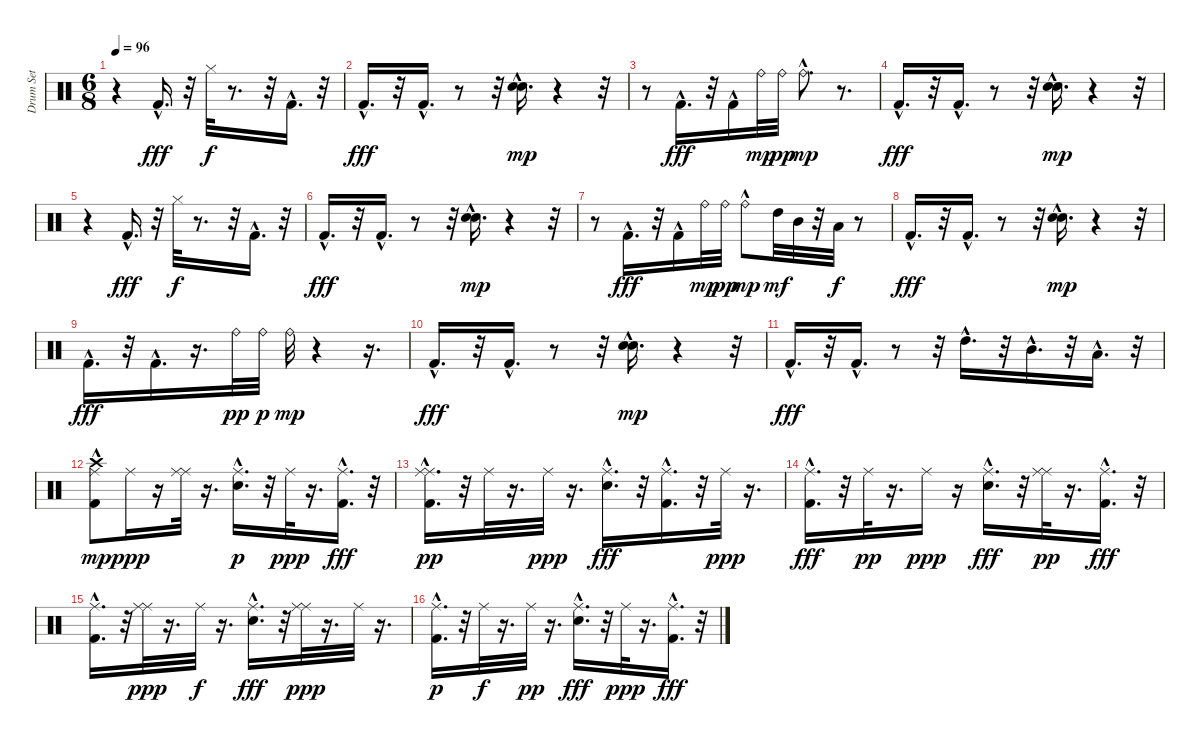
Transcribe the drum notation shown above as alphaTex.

\track ("Drum Set" "Drum Set") {instrument percussion}
\staff {score}
\articulation defaults
\ts (6 8)
\tempo 96
\clef neutral
\ks c
r.4{dy mp} "Kick (hit) 2"{hac}.16{d dy fff} r.32 "Hi-Hat (closed)".32{dy f} r.8{d} r.32 "Kick (hit) 2"{hac}.16{d} r.32 |
"Kick (hit) 2"{hac}.16{d dy fff} r.32 "Kick (hit) 2"{hac}.16{d} r.8 r.32 ("Snare (hit) 2"{hac} "Electric Snare (hit)"{hac}).16{d dy mp} r.4 r.32 |
r.8 "Kick (hit) 2"{hac}.16{d dy fff} r.32 "Kick (hit) 2"{hac}.16 "Ride (bell)".32{dy mp} "Ride (bell)".32{dy pp} "Ride (bell)"{hac}.8{d dy mp} r.8{d} |
"Kick (hit) 2"{hac}.16{d dy fff} r.32 "Kick (hit) 2"{hac}.16{d} r.8 r.32 ("Snare (hit) 2"{hac} "Electric Snare (hit)"{hac}).16{d dy mp} r.4 r.32 |
r.4 "Kick (hit) 2"{hac}.16{d dy fff} r.32 "Hi-Hat (closed)".32{dy f} r.8{d} r.32 "Kick (hit) 2"{hac}.16{d} r.32 |
"Kick (hit) 2"{hac}.16{d dy fff} r.32 "Kick (hit) 2"{hac}.16{d} r.8 r.32 ("Snare (hit) 2"{hac} "Electric Snare (hit)"{hac}).16{d dy mp} r.4 r.32 |
r.8 "Kick (hit) 2"{hac}.16{d dy fff} r.32 "Kick (hit) 2"{hac}.16 "Ride (bell)".32{dy mp} "Ride (bell)".32{dy pp} "Ride (bell)"{hac}.8{dy mp} "High Tom (hit)".32{dy mf} "Mid Tom (hit)".32 r.32 "Low Tom (hit)".32{dy f} r.8 |
"Kick (hit) 2"{hac}.16{d dy fff} r.32 "Kick (hit) 2"{hac}.16{d} r.8 r.32 ("Snare (hit) 2"{hac} "Electric Snare (hit)"{hac}).16{d dy mp} r.4 r.32 |
"Kick (hit) 2"{hac}.16{d dy fff} r.32 "Kick (hit) 2"{hac}.16{d} r.16{d} "Ride (bell)".32{dy pp} "Ride (bell)".32{dy p} "Ride (bell)".32{dy mp} r.4 r.16{d} |
"Kick (hit) 2"{hac}.16{d dy fff} r.32 "Kick (hit) 2"{hac}.16{d} r.8 r.32 ("Snare (hit) 2"{hac} "Electric Snare (hit)"{hac}).16{d dy mp} r.4 r.32 |
"Kick (hit) 2"{hac}.16{d dy fff} r.32 "Kick (hit) 2"{hac}.16{d} r.8 r.32 "High Tom (hit)"{hac}.16{d} r.32 "Mid Tom (hit)"{hac}.16{d} r.32 "Low Tom (hit)"{hac}.16{d} r.32 |
("Crash high (hit)" "Kick (hit) 2"{hac} "Ride (middle)").8{dy mp} "Ride (middle)".16{dy ppp} r.16 ("Ride (middle)" "Ride (middle)").32 r.16{d} ("Snare (hit) 2"{hac} "Ride (middle)"{hac}).16{d dy p} r.32 "Ride (middle)".32{dy ppp} r.16{d} ("Ride (middle)" "Kick (hit) 2"{hac}).16{d dy fff} r.32 |
("Ride (middle)" "Kick (hit) 2"{hac} "Ride (middle)").16{d dy pp} r.32 "Ride (middle)".32 r.16{d} "Ride (middle)".32{dy ppp} r.16{d} ("Ride (middle)" "Snare (hit) 2"{hac}).16{d dy fff} r.32 ("Ride (middle)" "Kick (hit) 2"{hac}).16{d} r.32 "Ride (middle)".32{dy ppp} r.16{d} |
("Ride (middle)" "Kick (hit) 2"{hac}).16{d dy fff} r.32 "Ride (middle)".32{dy pp} r.16{d} "Ride (middle)".16{dy ppp} r.16 ("Ride (middle)" "Snare (hit) 2"{hac}).16{d dy fff} r.32 ("Ride (middle)" "Ride (middle)").32{dy pp} r.16{d} ("Ride (middle)" "Kick (hit) 2"{hac}).16{d dy fff} r.32 |
("Ride (middle)" "Kick (hit) 2"{hac}).16{d} r.32 ("Ride (middle)" "Ride (middle)").32{dy ppp} r.16{d} "Ride (middle)".32{dy f} r.16{d} ("Ride (middle)" "Snare (hit) 2"{hac}).16{d dy fff} r.32 ("Ride (middle)" "Ride (middle)").32{dy ppp} r.16{d} "Ride (middle)".32 r.16{d} |
("Kick (hit) 2"{hac} "Ride (middle)").16{d dy p} r.32 "Ride (middle)".32{dy f} r.16{d} "Ride (middle)".32{dy pp} r.16{d} ("Ride (middle)" "Snare (hit) 2"{hac}).16{d dy fff} r.32 "Ride (middle)".32{dy ppp} r.16{d} ("Ride (middle)" "Kick (hit) 2"{hac}).16{d dy fff} r.32
